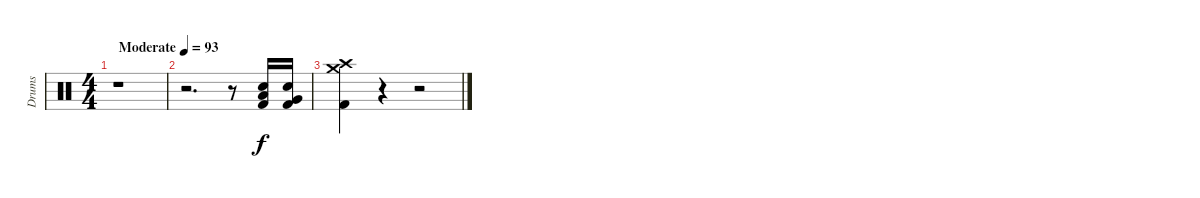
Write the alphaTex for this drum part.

\track ("Drums" "Drums") {instrument percussion}
\staff {score}
\articulation defaults
\ts (4 4)
\tempo (93 "Moderate")
\clef neutral
\ks c
r.1{dy f} |
r.2{d} r.8 ("Electric Snare (hit)" "Low Tom (hit)" "Kick (hit) 2").16 ("Electric Snare (hit)" "Very Low Tom (hit)" "Kick (hit) 2").16 |
("Crash high (hit)" "Crash medium (hit)" "Kick (hit) 2").4 r.4 r.2
